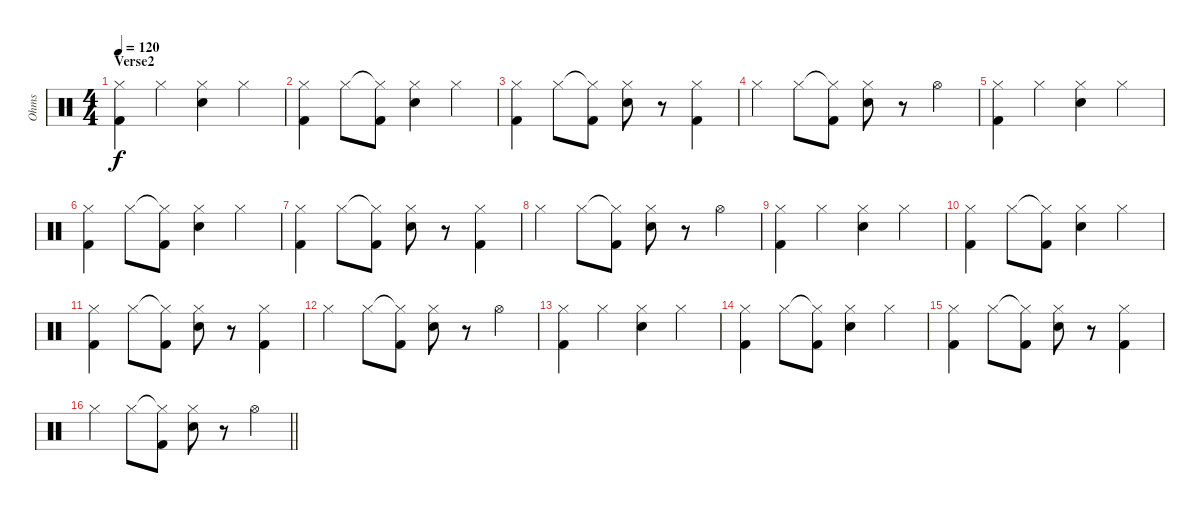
\track ("Ohms" "Ohms") {instrument percussion}
\staff {score}
\articulation defaults
\ts (4 4)
\section ("" "Verse2")
\tempo 120
\clef neutral
\ks c
("Hi-Hat (closed)" "Kick (hit) 2").4{dy f} "Hi-Hat (closed)".4 ("Hi-Hat (closed)" "Snare (hit) 2").4 "Hi-Hat (closed)".4 |
("Hi-Hat (closed)" "Kick (hit) 2").4 "Hi-Hat (closed)".8 ("Hi-Hat (closed)"{t} "Kick (hit) 2").8 ("Hi-Hat (closed)" "Snare (hit) 2").4 "Hi-Hat (closed)".4 |
("Hi-Hat (closed)" "Kick (hit) 2").4 "Hi-Hat (closed)".8 ("Hi-Hat (closed)"{t} "Kick (hit) 2").8 ("Hi-Hat (closed)" "Snare (hit) 2").8 r.8 ("Hi-Hat (closed)" "Kick (hit) 2").4 |
"Hi-Hat (closed)".4 "Hi-Hat (closed)".8 ("Hi-Hat (closed)"{t} "Kick (hit) 2").8 ("Hi-Hat (closed)" "Snare (hit) 2").8 r.8 "Hi-Hat (open)".4 |
("Hi-Hat (closed)" "Kick (hit) 2").4 "Hi-Hat (closed)".4 ("Hi-Hat (closed)" "Snare (hit) 2").4 "Hi-Hat (closed)".4 |
("Hi-Hat (closed)" "Kick (hit) 2").4 "Hi-Hat (closed)".8 ("Hi-Hat (closed)"{t} "Kick (hit) 2").8 ("Hi-Hat (closed)" "Snare (hit) 2").4 "Hi-Hat (closed)".4 |
("Hi-Hat (closed)" "Kick (hit) 2").4 "Hi-Hat (closed)".8 ("Hi-Hat (closed)"{t} "Kick (hit) 2").8 ("Hi-Hat (closed)" "Snare (hit) 2").8 r.8 ("Hi-Hat (closed)" "Kick (hit) 2").4 |
"Hi-Hat (closed)".4 "Hi-Hat (closed)".8 ("Hi-Hat (closed)"{t} "Kick (hit) 2").8 ("Hi-Hat (closed)" "Snare (hit) 2").8 r.8 "Hi-Hat (open)".4 |
("Hi-Hat (closed)" "Kick (hit) 2").4 "Hi-Hat (closed)".4 ("Hi-Hat (closed)" "Snare (hit) 2").4 "Hi-Hat (closed)".4 |
("Hi-Hat (closed)" "Kick (hit) 2").4 "Hi-Hat (closed)".8 ("Hi-Hat (closed)"{t} "Kick (hit) 2").8 ("Hi-Hat (closed)" "Snare (hit) 2").4 "Hi-Hat (closed)".4 |
("Hi-Hat (closed)" "Kick (hit) 2").4 "Hi-Hat (closed)".8 ("Hi-Hat (closed)"{t} "Kick (hit) 2").8 ("Hi-Hat (closed)" "Snare (hit) 2").8 r.8 ("Hi-Hat (closed)" "Kick (hit) 2").4 |
"Hi-Hat (closed)".4 "Hi-Hat (closed)".8 ("Hi-Hat (closed)"{t} "Kick (hit) 2").8 ("Hi-Hat (closed)" "Snare (hit) 2").8 r.8 "Hi-Hat (open)".4 |
("Hi-Hat (closed)" "Kick (hit) 2").4 "Hi-Hat (closed)".4 ("Hi-Hat (closed)" "Snare (hit) 2").4 "Hi-Hat (closed)".4 |
("Hi-Hat (closed)" "Kick (hit) 2").4 "Hi-Hat (closed)".8 ("Hi-Hat (closed)"{t} "Kick (hit) 2").8 ("Hi-Hat (closed)" "Snare (hit) 2").4 "Hi-Hat (closed)".4 |
("Hi-Hat (closed)" "Kick (hit) 2").4 "Hi-Hat (closed)".8 ("Hi-Hat (closed)"{t} "Kick (hit) 2").8 ("Hi-Hat (closed)" "Snare (hit) 2").8 r.8 ("Hi-Hat (closed)" "Kick (hit) 2").4 |
\barLineRight lightlight "Hi-Hat (closed)".4 "Hi-Hat (closed)".8
("Hi-Hat (closed)"{t} "Kick (hit) 2").8 ("Hi-Hat (closed)" "Snare (hit) 2").8 r.8 "Hi-Hat (open)".4
